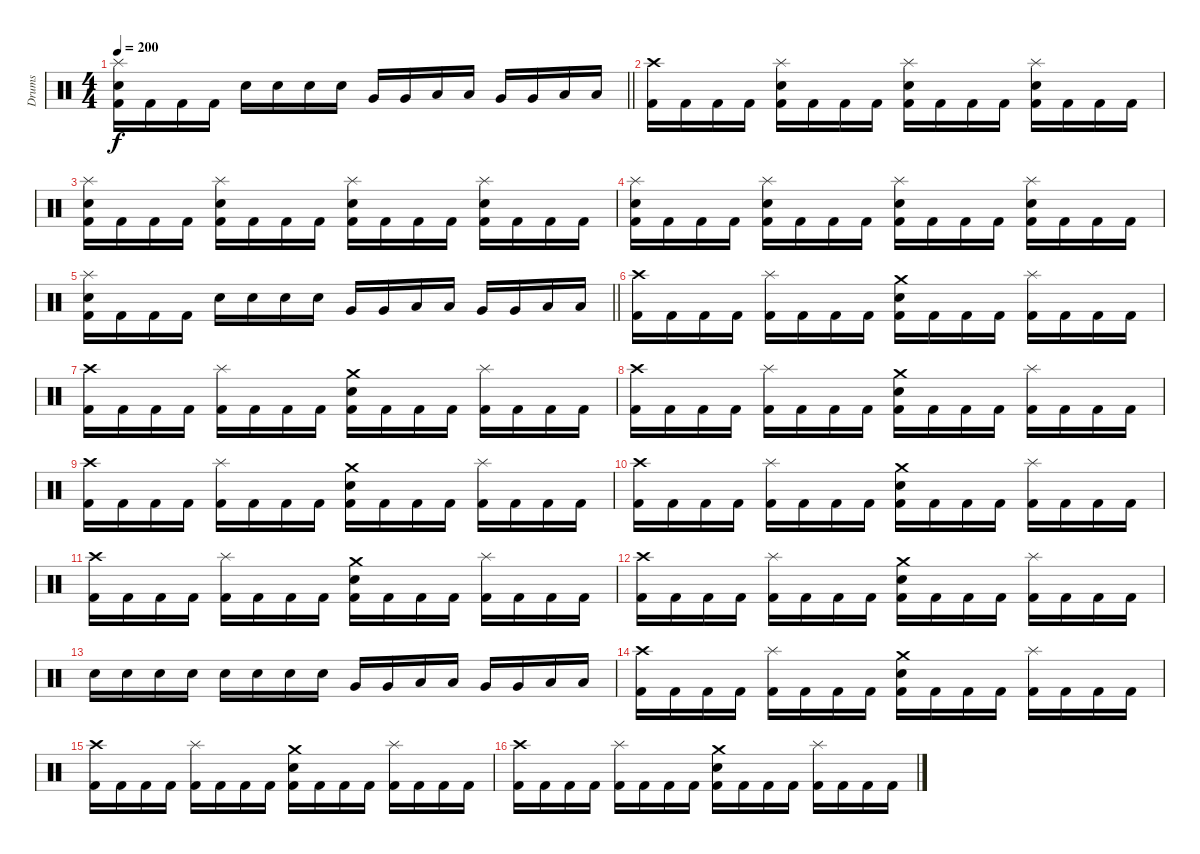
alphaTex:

\track ("Drums" "Drums") {instrument percussion}
\staff {score}
\articulation defaults
\ts (4 4)
\tempo 200
\clef neutral
\barLineRight lightlight
\ks c
("Splash (hit)" "Electric Snare (hit)" "Kick (hit) 2").16{dy f} "Kick (hit) 2".16 "Kick (hit) 2".16 "Kick (hit) 2".16 "Electric Snare (hit)".16 "Electric Snare (hit)".16 "Electric Snare (hit)".16 "Electric Snare (hit)".16 "Very Low Tom (hit)".16 "Very Low Tom (hit)".16 "Low Tom (hit)".16 "Low Tom (hit)".16 "Very Low Tom (hit)".16 "Very Low Tom (hit)".16 "Low Floor Tom (hit)".16 "Low Floor Tom (hit)".16 |
("Crash high (hit)" "Kick (hit) 2").16 "Kick (hit) 2".16 "Kick (hit) 2".16 "Kick (hit) 2".16 ("Splash (hit)" "Electric Snare (hit)" "Kick (hit) 2").16 "Kick (hit) 2".16 "Kick (hit) 2".16 "Kick (hit) 2".16 ("Splash (hit)" "Electric Snare (hit)" "Kick (hit) 2").16 "Kick (hit) 2".16 "Kick (hit) 2".16 "Kick (hit) 2".16 ("Splash (hit)" "Electric Snare (hit)" "Kick (hit) 2").16 "Kick (hit) 2".16 "Kick (hit) 2".16 "Kick (hit) 2".16 |
("Splash (hit)" "Electric Snare (hit)" "Kick (hit) 2").16 "Kick (hit) 2".16 "Kick (hit) 2".16 "Kick (hit) 2".16 ("Splash (hit)" "Electric Snare (hit)" "Kick (hit) 2").16 "Kick (hit) 2".16 "Kick (hit) 2".16 "Kick (hit) 2".16 ("Splash (hit)" "Electric Snare (hit)" "Kick (hit) 2").16 "Kick (hit) 2".16 "Kick (hit) 2".16 "Kick (hit) 2".16 ("Splash (hit)" "Electric Snare (hit)" "Kick (hit) 2").16 "Kick (hit) 2".16 "Kick (hit) 2".16 "Kick (hit) 2".16 |
("Splash (hit)" "Electric Snare (hit)" "Kick (hit) 2").16 "Kick (hit) 2".16 "Kick (hit) 2".16 "Kick (hit) 2".16 ("Splash (hit)" "Electric Snare (hit)" "Kick (hit) 2").16 "Kick (hit) 2".16 "Kick (hit) 2".16 "Kick (hit) 2".16 ("Splash (hit)" "Electric Snare (hit)" "Kick (hit) 2").16 "Kick (hit) 2".16 "Kick (hit) 2".16 "Kick (hit) 2".16 ("Splash (hit)" "Electric Snare (hit)" "Kick (hit) 2").16 "Kick (hit) 2".16 "Kick (hit) 2".16 "Kick (hit) 2".16 |
\barLineRight lightlight
("Splash (hit)" "Electric Snare (hit)" "Kick (hit) 2").16 "Kick (hit) 2".16 "Kick (hit) 2".16 "Kick (hit) 2".16 "Electric Snare (hit)".16 "Electric Snare (hit)".16 "Electric Snare (hit)".16 "Electric Snare (hit)".16 "Very Low Tom (hit)".16 "Very Low Tom (hit)".16 "Low Tom (hit)".16 "Low Tom (hit)".16 "Very Low Tom (hit)".16 "Very Low Tom (hit)".16 "Low Floor Tom (hit)".16 "Low Floor Tom (hit)".16 |
("Crash high (hit)" "Kick (hit) 2").16 "Kick (hit) 2".16 "Kick (hit) 2".16 "Kick (hit) 2".16 ("Splash (hit)" "Kick (hit) 2").16 "Kick (hit) 2".16 "Kick (hit) 2".16 "Kick (hit) 2".16 ("Crash medium (hit)" "Electric Snare (hit)" "Kick (hit) 2").16 "Kick (hit) 2".16 "Kick (hit) 2".16 "Kick (hit) 2".16 ("Splash (hit)" "Kick (hit) 2").16 "Kick (hit) 2".16 "Kick (hit) 2".16 "Kick (hit) 2".16 |
("Crash high (hit)" "Kick (hit) 2").16 "Kick (hit) 2".16 "Kick (hit) 2".16 "Kick (hit) 2".16 ("Splash (hit)" "Kick (hit) 2").16 "Kick (hit) 2".16 "Kick (hit) 2".16 "Kick (hit) 2".16 ("Crash medium (hit)" "Electric Snare (hit)" "Kick (hit) 2").16 "Kick (hit) 2".16 "Kick (hit) 2".16 "Kick (hit) 2".16 ("Splash (hit)" "Kick (hit) 2").16 "Kick (hit) 2".16 "Kick (hit) 2".16 "Kick (hit) 2".16 |
("Crash high (hit)" "Kick (hit) 2").16 "Kick (hit) 2".16 "Kick (hit) 2".16 "Kick (hit) 2".16 ("Splash (hit)" "Kick (hit) 2").16 "Kick (hit) 2".16 "Kick (hit) 2".16 "Kick (hit) 2".16 ("Crash medium (hit)" "Electric Snare (hit)" "Kick (hit) 2").16 "Kick (hit) 2".16 "Kick (hit) 2".16 "Kick (hit) 2".16 ("Splash (hit)" "Kick (hit) 2").16 "Kick (hit) 2".16 "Kick (hit) 2".16 "Kick (hit) 2".16 |
("Crash high (hit)" "Kick (hit) 2").16 "Kick (hit) 2".16 "Kick (hit) 2".16 "Kick (hit) 2".16 ("Splash (hit)" "Kick (hit) 2").16 "Kick (hit) 2".16 "Kick (hit) 2".16 "Kick (hit) 2".16 ("Crash medium (hit)" "Electric Snare (hit)" "Kick (hit) 2").16 "Kick (hit) 2".16 "Kick (hit) 2".16 "Kick (hit) 2".16 ("Splash (hit)" "Kick (hit) 2").16 "Kick (hit) 2".16 "Kick (hit) 2".16 "Kick (hit) 2".16 |
("Crash high (hit)" "Kick (hit) 2").16 "Kick (hit) 2".16 "Kick (hit) 2".16 "Kick (hit) 2".16 ("Splash (hit)" "Kick (hit) 2").16 "Kick (hit) 2".16 "Kick (hit) 2".16 "Kick (hit) 2".16 ("Crash medium (hit)" "Electric Snare (hit)" "Kick (hit) 2").16 "Kick (hit) 2".16 "Kick (hit) 2".16 "Kick (hit) 2".16 ("Splash (hit)" "Kick (hit) 2").16 "Kick (hit) 2".16 "Kick (hit) 2".16 "Kick (hit) 2".16 |
("Crash high (hit)" "Kick (hit) 2").16 "Kick (hit) 2".16 "Kick (hit) 2".16 "Kick (hit) 2".16 ("Splash (hit)" "Kick (hit) 2").16 "Kick (hit) 2".16 "Kick (hit) 2".16 "Kick (hit) 2".16 ("Crash medium (hit)" "Electric Snare (hit)" "Kick (hit) 2").16 "Kick (hit) 2".16 "Kick (hit) 2".16 "Kick (hit) 2".16 ("Splash (hit)" "Kick (hit) 2").16 "Kick (hit) 2".16 "Kick (hit) 2".16 "Kick (hit) 2".16 |
("Crash high (hit)" "Kick (hit) 2").16 "Kick (hit) 2".16 "Kick (hit) 2".16 "Kick (hit) 2".16 ("Splash (hit)" "Kick (hit) 2").16 "Kick (hit) 2".16 "Kick (hit) 2".16 "Kick (hit) 2".16 ("Crash medium (hit)" "Electric Snare (hit)" "Kick (hit) 2").16 "Kick (hit) 2".16 "Kick (hit) 2".16 "Kick (hit) 2".16 ("Splash (hit)" "Kick (hit) 2").16 "Kick (hit) 2".16 "Kick (hit) 2".16 "Kick (hit) 2".16 |
"Electric Snare (hit)".16 "Electric Snare (hit)".16 "Electric Snare (hit)".16 "Electric Snare (hit)".16 "Electric Snare (hit)".16 "Electric Snare (hit)".16 "Electric Snare (hit)".16 "Electric Snare (hit)".16 "Very Low Tom (hit)".16 "Very Low Tom (hit)".16 "Low Tom (hit)".16 "Low Tom (hit)".16 "Very Low Tom (hit)".16 "Very Low Tom (hit)".16 "Low Floor Tom (hit)".16 "Low Floor Tom (hit)".16 |
("Crash high (hit)" "Kick (hit) 2").16 "Kick (hit) 2".16 "Kick (hit) 2".16 "Kick (hit) 2".16 ("Splash (hit)" "Kick (hit) 2").16 "Kick (hit) 2".16 "Kick (hit) 2".16 "Kick (hit) 2".16 ("Crash medium (hit)" "Electric Snare (hit)" "Kick (hit) 2").16 "Kick (hit) 2".16 "Kick (hit) 2".16 "Kick (hit) 2".16 ("Splash (hit)" "Kick (hit) 2").16 "Kick (hit) 2".16 "Kick (hit) 2".16 "Kick (hit) 2".16 |
("Crash high (hit)" "Kick (hit) 2").16 "Kick (hit) 2".16 "Kick (hit) 2".16 "Kick (hit) 2".16 ("Splash (hit)" "Kick (hit) 2").16 "Kick (hit) 2".16 "Kick (hit) 2".16 "Kick (hit) 2".16 ("Crash medium (hit)" "Electric Snare (hit)" "Kick (hit) 2").16 "Kick (hit) 2".16 "Kick (hit) 2".16 "Kick (hit) 2".16 ("Splash (hit)" "Kick (hit) 2").16 "Kick (hit) 2".16 "Kick (hit) 2".16 "Kick (hit) 2".16 |
("Crash high (hit)" "Kick (hit) 2").16 "Kick (hit) 2".16 "Kick (hit) 2".16 "Kick (hit) 2".16 ("Splash (hit)" "Kick (hit) 2").16 "Kick (hit) 2".16 "Kick (hit) 2".16 "Kick (hit) 2".16 ("Crash medium (hit)" "Electric Snare (hit)" "Kick (hit) 2").16 "Kick (hit) 2".16 "Kick (hit) 2".16 "Kick (hit) 2".16 ("Splash (hit)" "Kick (hit) 2").16 "Kick (hit) 2".16 "Kick (hit) 2".16 "Kick (hit) 2".16
